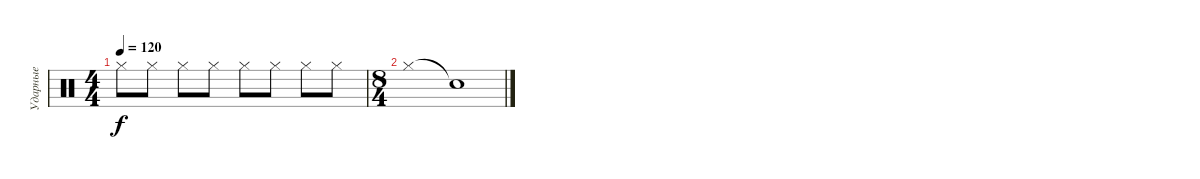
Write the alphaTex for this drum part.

\track ("Ударные" "Ударные") {instrument percussion}
\staff {score}
\articulation defaults
\ts (4 4)
\tempo 120
\clef neutral
\ks c "Hi-Hat (closed)".8{dy f} "Hi-Hat (closed)".8 "Hi-Hat (closed)".8 "Hi-Hat (closed)".8 "Hi-Hat (closed)".8 "Hi-Hat (closed)".8 "Hi-Hat (closed)".8 "Hi-Hat (closed)".8
|
\ts (8 4)
"Hi-Hat (closed)".1 "Snare (hit)"{t}.1
